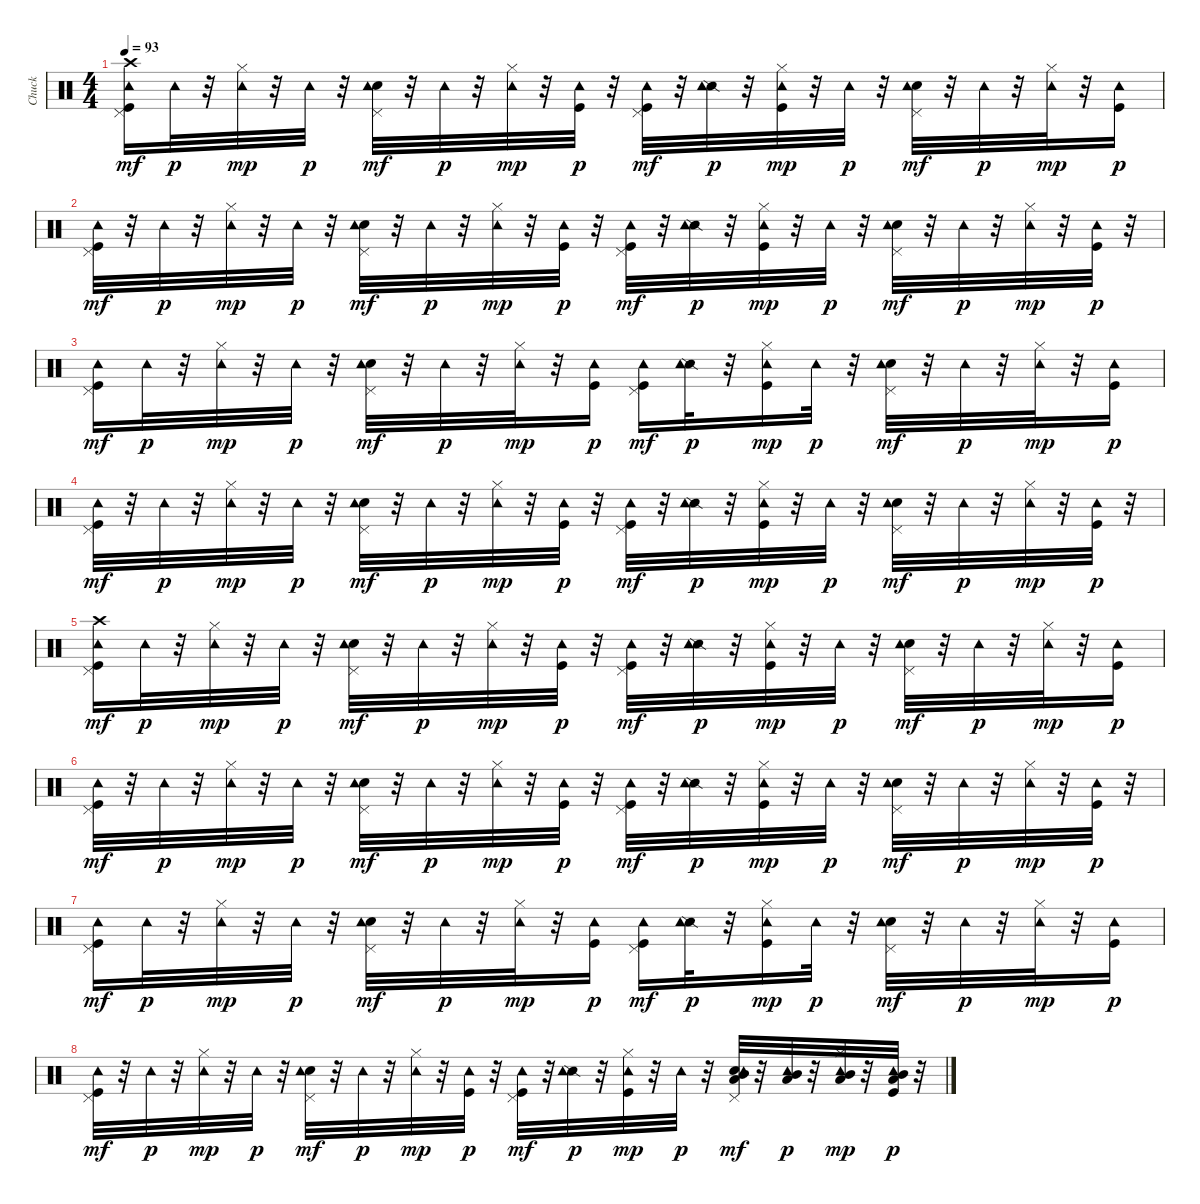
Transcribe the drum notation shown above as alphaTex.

\track ("Chuck" "Chuck") {instrument percussion}
\staff {score}
\articulation defaults
\ts (4 4)
\tempo 93
\clef neutral
\ks c
("Kick (hit)" "Pedal Hi-Hat (hit)" "Crash high (hit)" "Tambourine (hit)").16{dy mf} "Tambourine (hit)".32{dy p} r.32 ("Hi-Hat (closed)" "Tambourine (hit)").32{dy mp} r.32 "Tambourine (hit)".32{dy p} r.32 ("Electric Snare (hit)" "Pedal Hi-Hat (hit)" "Tambourine (hit)").32{dy mf} r.32 "Tambourine (hit)".32{dy p} r.32 ("Hi-Hat (closed)" "Tambourine (hit)").32{dy mp} r.32 ("Kick (hit)" "Tambourine (hit)").32{dy p} r.32 ("Kick (hit)" "Pedal Hi-Hat (hit)" "Tambourine (hit)").32{dy mf} r.32 ("Snare (side stick) 2" "Tambourine (hit)").32{dy p} r.32 ("Kick (hit)" "Hi-Hat (closed)" "Tambourine (hit)").32{dy mp} r.32 "Tambourine (hit)".32{dy p} r.32 ("Electric Snare (hit)" "Pedal Hi-Hat (hit)" "Tambourine (hit)").32{dy mf} r.32 "Tambourine (hit)".32{dy p} r.32 ("Hi-Hat (closed)" "Tambourine (hit)").32{dy mp} r.32 ("Kick (hit)" "Tambourine (hit)").16{dy p} |
("Kick (hit)" "Pedal Hi-Hat (hit)" "Tambourine (hit)").32{dy mf} r.32 "Tambourine (hit)".32{dy p} r.32 ("Hi-Hat (closed)" "Tambourine (hit)").32{dy mp} r.32 "Tambourine (hit)".32{dy p} r.32 ("Electric Snare (hit)" "Pedal Hi-Hat (hit)" "Tambourine (hit)").32{dy mf} r.32 "Tambourine (hit)".32{dy p} r.32 ("Hi-Hat (closed)" "Tambourine (hit)").32{dy mp} r.32 ("Kick (hit)" "Tambourine (hit)").32{dy p} r.32 ("Kick (hit)" "Pedal Hi-Hat (hit)" "Tambourine (hit)").32{dy mf} r.32 ("Snare (side stick) 2" "Tambourine (hit)").32{dy p} r.32 ("Kick (hit)" "Hi-Hat (closed)" "Tambourine (hit)").32{dy mp} r.32 "Tambourine (hit)".32{dy p} r.32 ("Electric Snare (hit)" "Pedal Hi-Hat (hit)" "Tambourine (hit)").32{dy mf} r.32 "Tambourine (hit)".32{dy p} r.32 ("Hi-Hat (closed)" "Tambourine (hit)").32{dy mp} r.32 ("Kick (hit)" "Tambourine (hit)").32{dy p} r.32 |
("Kick (hit)" "Pedal Hi-Hat (hit)" "Tambourine (hit)").16{dy mf} "Tambourine (hit)".32{dy p} r.32 ("Hi-Hat (closed)" "Tambourine (hit)").32{dy mp} r.32 "Tambourine (hit)".32{dy p} r.32 ("Electric Snare (hit)" "Pedal Hi-Hat (hit)" "Tambourine (hit)").32{dy mf} r.32 "Tambourine (hit)".32{dy p} r.32 ("Hi-Hat (closed)" "Tambourine (hit)").32{dy mp} r.32 ("Kick (hit)" "Tambourine (hit)").16{dy p} ("Kick (hit)" "Pedal Hi-Hat (hit)" "Tambourine (hit)").16{dy mf} ("Snare (side stick) 2" "Tambourine (hit)").32{dy p} r.32 ("Kick (hit)" "Hi-Hat (closed)" "Tambourine (hit)").16{dy mp} "Tambourine (hit)".32{dy p} r.32 ("Electric Snare (hit)" "Pedal Hi-Hat (hit)" "Tambourine (hit)").32{dy mf} r.32 "Tambourine (hit)".32{dy p} r.32 ("Hi-Hat (closed)" "Tambourine (hit)").32{dy mp} r.32 ("Kick (hit)" "Tambourine (hit)").16{dy p} |
("Kick (hit)" "Pedal Hi-Hat (hit)" "Tambourine (hit)").32{dy mf} r.32 "Tambourine (hit)".32{dy p} r.32 ("Hi-Hat (closed)" "Tambourine (hit)").32{dy mp} r.32 "Tambourine (hit)".32{dy p} r.32 ("Electric Snare (hit)" "Pedal Hi-Hat (hit)" "Tambourine (hit)").32{dy mf} r.32 "Tambourine (hit)".32{dy p} r.32 ("Hi-Hat (closed)" "Tambourine (hit)").32{dy mp} r.32 ("Kick (hit)" "Tambourine (hit)").32{dy p} r.32 ("Kick (hit)" "Pedal Hi-Hat (hit)" "Tambourine (hit)").32{dy mf} r.32 ("Snare (side stick) 2" "Tambourine (hit)").32{dy p} r.32 ("Kick (hit)" "Hi-Hat (closed)" "Tambourine (hit)").32{dy mp} r.32 "Tambourine (hit)".32{dy p} r.32 ("Electric Snare (hit)" "Pedal Hi-Hat (hit)" "Tambourine (hit)").32{dy mf} r.32 "Tambourine (hit)".32{dy p} r.32 ("Hi-Hat (closed)" "Tambourine (hit)").32{dy mp} r.32 ("Kick (hit)" "Tambourine (hit)").32{dy p} r.32 |
("Kick (hit)" "Pedal Hi-Hat (hit)" "Crash high (hit)" "Tambourine (hit)").16{dy mf} "Tambourine (hit)".32{dy p} r.32 ("Hi-Hat (closed)" "Tambourine (hit)").32{dy mp} r.32 "Tambourine (hit)".32{dy p} r.32 ("Electric Snare (hit)" "Pedal Hi-Hat (hit)" "Tambourine (hit)").32{dy mf} r.32 "Tambourine (hit)".32{dy p} r.32 ("Hi-Hat (closed)" "Tambourine (hit)").32{dy mp} r.32 ("Kick (hit)" "Tambourine (hit)").32{dy p} r.32 ("Kick (hit)" "Pedal Hi-Hat (hit)" "Tambourine (hit)").32{dy mf} r.32 ("Snare (side stick) 2" "Tambourine (hit)").32{dy p} r.32 ("Kick (hit)" "Hi-Hat (closed)" "Tambourine (hit)").32{dy mp} r.32 "Tambourine (hit)".32{dy p} r.32 ("Electric Snare (hit)" "Pedal Hi-Hat (hit)" "Tambourine (hit)").32{dy mf} r.32 "Tambourine (hit)".32{dy p} r.32 ("Hi-Hat (closed)" "Tambourine (hit)").32{dy mp} r.32 ("Kick (hit)" "Tambourine (hit)").16{dy p} |
("Kick (hit)" "Pedal Hi-Hat (hit)" "Tambourine (hit)").32{dy mf} r.32 "Tambourine (hit)".32{dy p} r.32 ("Hi-Hat (closed)" "Tambourine (hit)").32{dy mp} r.32 "Tambourine (hit)".32{dy p} r.32 ("Electric Snare (hit)" "Pedal Hi-Hat (hit)" "Tambourine (hit)").32{dy mf} r.32 "Tambourine (hit)".32{dy p} r.32 ("Hi-Hat (closed)" "Tambourine (hit)").32{dy mp} r.32 ("Kick (hit)" "Tambourine (hit)").32{dy p} r.32 ("Kick (hit)" "Pedal Hi-Hat (hit)" "Tambourine (hit)").32{dy mf} r.32 ("Snare (side stick) 2" "Tambourine (hit)").32{dy p} r.32 ("Kick (hit)" "Hi-Hat (closed)" "Tambourine (hit)").32{dy mp} r.32 "Tambourine (hit)".32{dy p} r.32 ("Electric Snare (hit)" "Pedal Hi-Hat (hit)" "Tambourine (hit)").32{dy mf} r.32 "Tambourine (hit)".32{dy p} r.32 ("Hi-Hat (closed)" "Tambourine (hit)").32{dy mp} r.32 ("Kick (hit)" "Tambourine (hit)").32{dy p} r.32 |
("Kick (hit)" "Pedal Hi-Hat (hit)" "Tambourine (hit)").16{dy mf} "Tambourine (hit)".32{dy p} r.32 ("Hi-Hat (closed)" "Tambourine (hit)").32{dy mp} r.32 "Tambourine (hit)".32{dy p} r.32 ("Electric Snare (hit)" "Pedal Hi-Hat (hit)" "Tambourine (hit)").32{dy mf} r.32 "Tambourine (hit)".32{dy p} r.32 ("Hi-Hat (closed)" "Tambourine (hit)").32{dy mp} r.32 ("Kick (hit)" "Tambourine (hit)").16{dy p} ("Kick (hit)" "Pedal Hi-Hat (hit)" "Tambourine (hit)").16{dy mf} ("Snare (side stick) 2" "Tambourine (hit)").32{dy p} r.32 ("Kick (hit)" "Hi-Hat (closed)" "Tambourine (hit)").16{dy mp} "Tambourine (hit)".32{dy p} r.32 ("Electric Snare (hit)" "Pedal Hi-Hat (hit)" "Tambourine (hit)").32{dy mf} r.32 "Tambourine (hit)".32{dy p} r.32 ("Hi-Hat (closed)" "Tambourine (hit)").32{dy mp} r.32 ("Kick (hit)" "Tambourine (hit)").16{dy p} |
("Kick (hit)" "Pedal Hi-Hat (hit)" "Tambourine (hit)").32{dy mf} r.32 "Tambourine (hit)".32{dy p} r.32 ("Hi-Hat (closed)" "Tambourine (hit)").32{dy mp} r.32 "Tambourine (hit)".32{dy p} r.32 ("Electric Snare (hit)" "Pedal Hi-Hat (hit)" "Tambourine (hit)").32{dy mf} r.32 "Tambourine (hit)".32{dy p} r.32 ("Hi-Hat (closed)" "Tambourine (hit)").32{dy mp} r.32 ("Kick (hit)" "Tambourine (hit)").32{dy p} r.32 ("Kick (hit)" "Pedal Hi-Hat (hit)" "Tambourine (hit)").32{dy mf} r.32 ("Snare (side stick) 2" "Tambourine (hit)").32{dy p} r.32 ("Kick (hit)" "Hi-Hat (closed)" "Tambourine (hit)").32{dy mp} r.32 "Tambourine (hit)".32{dy p} r.32 ("Electric Snare (hit)" "Pedal Hi-Hat (hit)" "Low Tom (hit)" "Mid Tom (hit)" "Tambourine (hit)").32{dy mf} r.32 ("Low Tom (hit)" "Mid Tom (hit)" "Tambourine (hit)").32{dy p} r.32 ("Hi-Hat (closed)" "Low Tom (hit)" "Mid Tom (hit)" "Tambourine (hit)").32{dy mp} r.32 ("Kick (hit)" "Low Tom (hit)" "Mid Tom (hit)" "Tambourine (hit)").32{dy p} r.32
